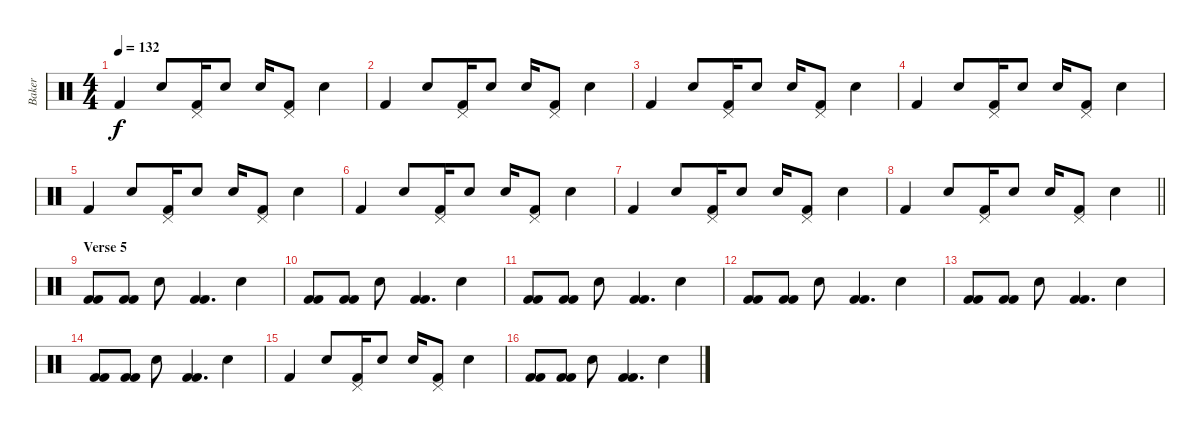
\track ("Baker" "Baker") {instrument percussion}
\staff {score}
\articulation defaults
\ts (4 4)
\tempo 132
\clef neutral
\ks c "Kick (hit) 2".4{dy f} "Snare (hit) 2".8
("Pedal Hi-Hat (hit)" "Kick (hit) 2").16 "Snare (hit) 2".8 "Snare (hit) 2".16 ("Pedal Hi-Hat (hit)" "Kick (hit) 2").8 "Snare (hit) 2".4 |
"Kick (hit) 2".4 "Snare (hit) 2".8 ("Pedal Hi-Hat (hit)" "Kick (hit) 2").16 "Snare (hit) 2".8 "Snare (hit) 2".16 ("Pedal Hi-Hat (hit)" "Kick (hit) 2").8 "Snare (hit) 2".4 |
"Kick (hit) 2".4 "Snare (hit) 2".8 ("Pedal Hi-Hat (hit)" "Kick (hit) 2").16 "Snare (hit) 2".8 "Snare (hit) 2".16 ("Pedal Hi-Hat (hit)" "Kick (hit) 2").8 "Snare (hit) 2".4 |
"Kick (hit) 2".4 "Snare (hit) 2".8 ("Pedal Hi-Hat (hit)" "Kick (hit) 2").16 "Snare (hit) 2".8 "Snare (hit) 2".16 ("Pedal Hi-Hat (hit)" "Kick (hit) 2").8 "Snare (hit) 2".4 |
"Kick (hit) 2".4 "Snare (hit) 2".8 ("Pedal Hi-Hat (hit)" "Kick (hit) 2").16 "Snare (hit) 2".8 "Snare (hit) 2".16 ("Pedal Hi-Hat (hit)" "Kick (hit) 2").8 "Snare (hit) 2".4 |
"Kick (hit) 2".4 "Snare (hit) 2".8 ("Pedal Hi-Hat (hit)" "Kick (hit) 2").16 "Snare (hit) 2".8 "Snare (hit) 2".16 ("Pedal Hi-Hat (hit)" "Kick (hit) 2").8 "Snare (hit) 2".4 |
"Kick (hit) 2".4 "Snare (hit) 2".8 ("Pedal Hi-Hat (hit)" "Kick (hit) 2").16 "Snare (hit) 2".8 "Snare (hit) 2".16 ("Pedal Hi-Hat (hit)" "Kick (hit) 2").8 "Snare (hit) 2".4 |
\barLineRight lightlight "Kick (hit) 2".4 "Snare (hit) 2".8
("Pedal Hi-Hat (hit)" "Kick (hit) 2").16 "Snare (hit) 2".8 "Snare (hit) 2".16 ("Pedal Hi-Hat (hit)" "Kick (hit) 2").8 "Snare (hit) 2".4 |
\section ("" "Verse 5")
("Kick (hit) 2" "Kick (hit) 2").8 ("Kick (hit) 2" "Kick (hit) 2").8 "Snare (hit) 2".8 ("Kick (hit) 2" "Kick (hit) 2").4{d} "Snare (hit) 2".4 |
("Kick (hit) 2" "Kick (hit) 2").8 ("Kick (hit) 2" "Kick (hit) 2").8 "Snare (hit) 2".8 ("Kick (hit) 2" "Kick (hit) 2").4{d} "Snare (hit) 2".4 |
("Kick (hit) 2" "Kick (hit) 2").8 ("Kick (hit) 2" "Kick (hit) 2").8 "Snare (hit) 2".8 ("Kick (hit) 2" "Kick (hit) 2").4{d} "Snare (hit) 2".4 |
("Kick (hit) 2" "Kick (hit) 2").8 ("Kick (hit) 2" "Kick (hit) 2").8 "Snare (hit) 2".8 ("Kick (hit) 2" "Kick (hit) 2").4{d} "Snare (hit) 2".4 |
("Kick (hit) 2" "Kick (hit) 2").8 ("Kick (hit) 2" "Kick (hit) 2").8 "Snare (hit) 2".8 ("Kick (hit) 2" "Kick (hit) 2").4{d} "Snare (hit) 2".4 |
("Kick (hit) 2" "Kick (hit) 2").8 ("Kick (hit) 2" "Kick (hit) 2").8 "Snare (hit) 2".8 ("Kick (hit) 2" "Kick (hit) 2").4{d} "Snare (hit) 2".4 |
"Kick (hit) 2".4 "Snare (hit) 2".8 ("Pedal Hi-Hat (hit)" "Kick (hit) 2").16 "Snare (hit) 2".8 "Snare (hit) 2".16 ("Pedal Hi-Hat (hit)" "Kick (hit) 2").8 "Snare (hit) 2".4 |
("Kick (hit) 2" "Kick (hit) 2").8 ("Kick (hit) 2" "Kick (hit) 2").8 "Snare (hit) 2".8 ("Kick (hit) 2" "Kick (hit) 2").4{d} "Snare (hit) 2".4
